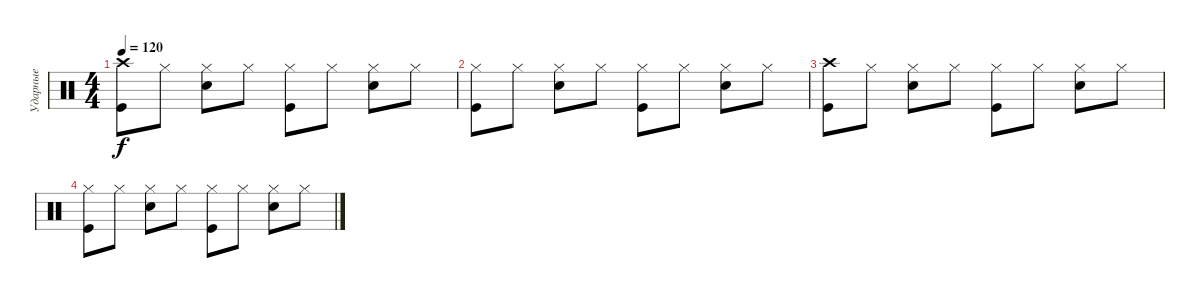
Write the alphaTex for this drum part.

\track ("Ударные" "Ударные") {instrument percussion}
\staff {score}
\articulation defaults
\ts (4 4)
\tempo 120
\clef neutral
\ks c
("Crash high (hit)" "Kick (hit)").8{dy f} "Hi-Hat (closed)".8 ("Hi-Hat (closed)" "Electric Snare (hit)").8 "Hi-Hat (closed)".8 ("Hi-Hat (closed)" "Kick (hit)").8 "Hi-Hat (closed)".8 ("Hi-Hat (closed)" "Electric Snare (hit)").8 "Hi-Hat (closed)".8 |
("Hi-Hat (closed)" "Kick (hit)").8 "Hi-Hat (closed)".8 ("Hi-Hat (closed)" "Electric Snare (hit)").8 "Hi-Hat (closed)".8 ("Hi-Hat (closed)" "Kick (hit)").8 "Hi-Hat (closed)".8 ("Hi-Hat (closed)" "Electric Snare (hit)").8 "Hi-Hat (closed)".8 |
("Crash high (hit)" "Kick (hit)").8 "Hi-Hat (closed)".8 ("Hi-Hat (closed)" "Electric Snare (hit)").8 "Hi-Hat (closed)".8 ("Hi-Hat (closed)" "Kick (hit)").8 "Hi-Hat (closed)".8 ("Hi-Hat (closed)" "Electric Snare (hit)").8 "Hi-Hat (closed)".8 |
("Hi-Hat (closed)" "Kick (hit)").8 "Hi-Hat (closed)".8 ("Hi-Hat (closed)" "Electric Snare (hit)").8 "Hi-Hat (closed)".8 ("Hi-Hat (closed)" "Kick (hit)").8 "Hi-Hat (closed)".8 ("Hi-Hat (closed)" "Electric Snare (hit)").8 "Hi-Hat (closed)".8
